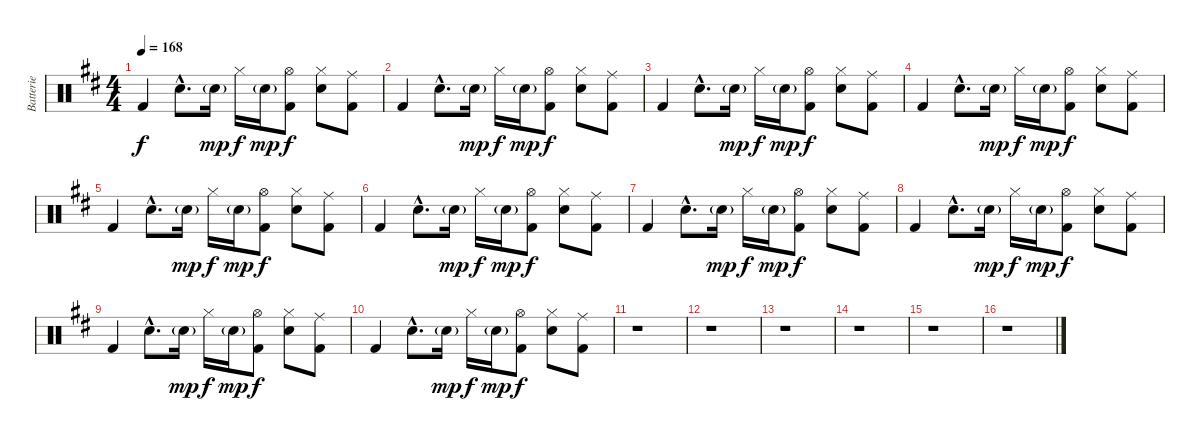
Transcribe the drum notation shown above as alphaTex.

\track ("Batterie" "Batterie") {instrument percussion}
\staff {score}
\articulation defaults
\ts (4 4)
\tempo 168
\clef neutral
\ks d "Kick (hit) 2".4{dy f} "Snare (hit) 2"{hac}.8{d} "Snare (hit) 2"{g}.16{dy mp} "Hi-Hat (closed)".16{dy f} "Snare (hit) 2"{g}.16{dy mp}
("Hi-Hat (open)" "Kick (hit) 2").8{dy f} ("Hi-Hat (closed)" "Snare (hit) 2").8 ("Ride (middle)" "Kick (hit) 2").8 |
"Kick (hit) 2".4 "Snare (hit) 2"{hac}.8{d} "Snare (hit) 2"{g}.16{dy mp} "Hi-Hat (closed)".16{dy f} "Snare (hit) 2"{g}.16{dy mp} ("Hi-Hat (open)" "Kick (hit) 2").8{dy f} ("Hi-Hat (closed)" "Snare (hit) 2").8 ("Ride (middle)" "Kick (hit) 2").8 |
"Kick (hit) 2".4{volume 6} "Snare (hit) 2"{hac}.8{d} "Snare (hit) 2"{g}.16{dy mp} "Hi-Hat (closed)".16{dy f} "Snare (hit) 2"{g}.16{dy mp} ("Hi-Hat (open)" "Kick (hit) 2").8{dy f} ("Hi-Hat (closed)" "Snare (hit) 2").8 ("Ride (middle)" "Kick (hit) 2").8 |
"Kick (hit) 2".4 "Snare (hit) 2"{hac}.8{d} "Snare (hit) 2"{g}.16{dy mp} "Hi-Hat (closed)".16{dy f} "Snare (hit) 2"{g}.16{dy mp} ("Hi-Hat (open)" "Kick (hit) 2").8{dy f} ("Hi-Hat (closed)" "Snare (hit) 2").8 ("Ride (middle)" "Kick (hit) 2").8 |
"Kick (hit) 2".4 "Snare (hit) 2"{hac}.8{d} "Snare (hit) 2"{g}.16{dy mp} "Hi-Hat (closed)".16{dy f} "Snare (hit) 2"{g}.16{dy mp} ("Hi-Hat (open)" "Kick (hit) 2").8{dy f} ("Hi-Hat (closed)" "Snare (hit) 2").8 ("Ride (middle)" "Kick (hit) 2").8 |
"Kick (hit) 2".4 "Snare (hit) 2"{hac}.8{d} "Snare (hit) 2"{g}.16{dy mp} "Hi-Hat (closed)".16{dy f} "Snare (hit) 2"{g}.16{dy mp} ("Hi-Hat (open)" "Kick (hit) 2").8{dy f} ("Hi-Hat (closed)" "Snare (hit) 2").8 ("Ride (middle)" "Kick (hit) 2").8 |
"Kick (hit) 2".4{volume 0} "Snare (hit) 2"{hac}.8{d} "Snare (hit) 2"{g}.16{dy mp} "Hi-Hat (closed)".16{dy f} "Snare (hit) 2"{g}.16{dy mp} ("Hi-Hat (open)" "Kick (hit) 2").8{dy f} ("Hi-Hat (closed)" "Snare (hit) 2").8 ("Ride (middle)" "Kick (hit) 2").8 |
"Kick (hit) 2".4 "Snare (hit) 2"{hac}.8{d} "Snare (hit) 2"{g}.16{dy mp} "Hi-Hat (closed)".16{dy f} "Snare (hit) 2"{g}.16{dy mp} ("Hi-Hat (open)" "Kick (hit) 2").8{dy f} ("Hi-Hat (closed)" "Snare (hit) 2").8 ("Ride (middle)" "Kick (hit) 2").8 |
"Kick (hit) 2".4 "Snare (hit) 2"{hac}.8{d} "Snare (hit) 2"{g}.16{dy mp} "Hi-Hat (closed)".16{dy f} "Snare (hit) 2"{g}.16{dy mp} ("Hi-Hat (open)" "Kick (hit) 2").8{dy f} ("Hi-Hat (closed)" "Snare (hit) 2").8 ("Ride (middle)" "Kick (hit) 2").8 |
"Kick (hit) 2".4 "Snare (hit) 2"{hac}.8{d} "Snare (hit) 2"{g}.16{dy mp} "Hi-Hat (closed)".16{dy f} "Snare (hit) 2"{g}.16{dy mp} ("Hi-Hat (open)" "Kick (hit) 2").8{dy f} ("Hi-Hat (closed)" "Snare (hit) 2").8 ("Ride (middle)" "Kick (hit) 2").8 |
r.1 |
r.1 |
r.1 |
r.1 |
r.1 |
r.1
